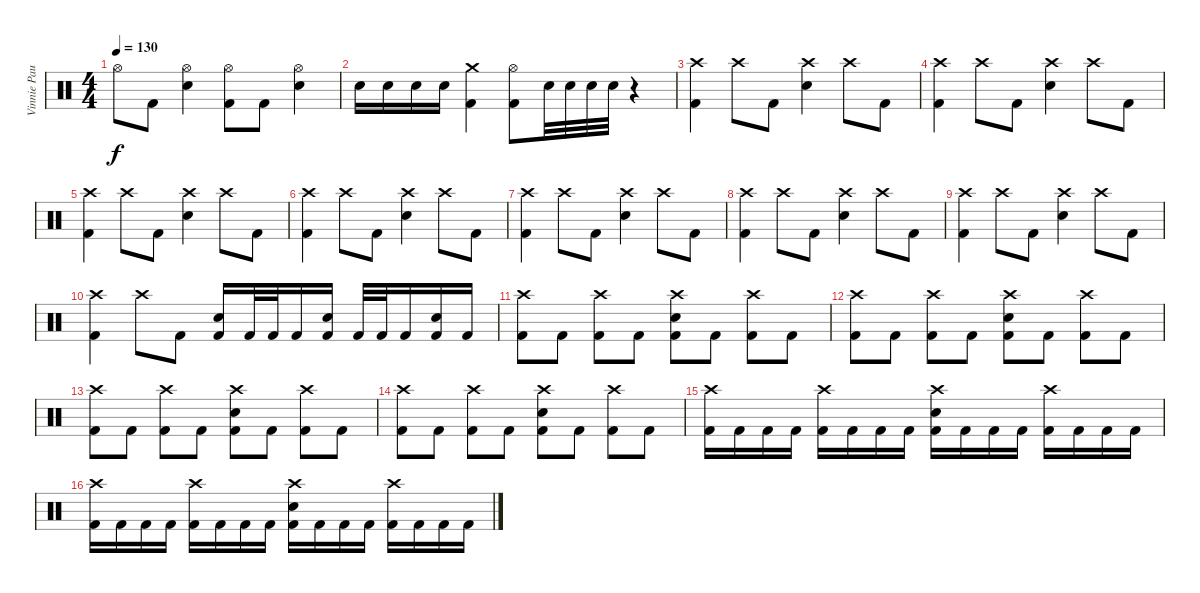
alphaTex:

\track ("Vinnie Paul" "Vinnie Pau") {instrument percussion}
\staff {score}
\articulation defaults
\ts (4 4)
\tempo 130
\clef neutral
\ks c "Hi-Hat (open)"{t}.8{dy f} "Kick (hit) 2".8
("Hi-Hat (open)" "Snare (hit) 2").4 ("Hi-Hat (open)" "Kick (hit) 2").8 "Kick (hit) 2".8 ("Hi-Hat (open)" "Snare (hit) 2").4 |
"Snare (hit) 2".16 "Snare (hit) 2".16 "Snare (hit) 2".16 "Snare (hit) 2".16 ("Crash medium (hit)" "Kick (hit) 2").4 ("Hi-Hat (open)" "Kick (hit) 2").8{bd 120} "Snare (hit) 2".32 "Snare (hit) 2".32 "Snare (hit) 2".32 "Snare (hit) 2".32 r.4 |
("Crash high (hit)" "Kick (hit) 2").4 "Crash high (hit)".8 "Kick (hit) 2".8 ("Crash high (hit)" "Snare (hit) 2").4 "Crash high (hit)".8 "Kick (hit) 2".8 |
("Crash high (hit)" "Kick (hit) 2").4 "Crash high (hit)".8 "Kick (hit) 2".8 ("Crash high (hit)" "Snare (hit) 2").4 "Crash high (hit)".8 "Kick (hit) 2".8 |
("Crash high (hit)" "Kick (hit) 2").4 "Crash high (hit)".8 "Kick (hit) 2".8 ("Crash high (hit)" "Snare (hit) 2").4 "Crash high (hit)".8 "Kick (hit) 2".8 |
("Crash high (hit)" "Kick (hit) 2").4 "Crash high (hit)".8 "Kick (hit) 2".8 ("Crash high (hit)" "Snare (hit) 2").4 "Crash high (hit)".8 "Kick (hit) 2".8 |
("Crash high (hit)" "Kick (hit) 2").4 "Crash high (hit)".8 "Kick (hit) 2".8 ("Crash high (hit)" "Snare (hit) 2").4 "Crash high (hit)".8 "Kick (hit) 2".8 |
("Crash high (hit)" "Kick (hit) 2").4 "Crash high (hit)".8 "Kick (hit) 2".8 ("Crash high (hit)" "Snare (hit) 2").4 "Crash high (hit)".8 "Kick (hit) 2".8 |
("Crash high (hit)" "Kick (hit) 2").4 "Crash high (hit)".8 "Kick (hit) 2".8 ("Crash high (hit)" "Snare (hit) 2").4 "Crash high (hit)".8 "Kick (hit) 2".8 |
("Crash high (hit)" "Kick (hit) 2").4 "Crash high (hit)".8 "Kick (hit) 2".8 ("Snare (hit) 2" "Kick (hit) 2").16 "Kick (hit) 2".32 "Kick (hit) 2".32 "Kick (hit) 2".16 ("Snare (hit) 2" "Kick (hit) 2").16 "Kick (hit) 2".32 "Kick (hit) 2".32 "Kick (hit) 2".16 ("Snare (hit) 2" "Kick (hit) 2").16 "Kick (hit) 2".16 |
("Crash high (hit)" "Kick (hit) 2").8 "Kick (hit) 2".8 ("Crash high (hit)" "Kick (hit) 2").8 "Kick (hit) 2".8 ("Crash high (hit)" "Snare (hit) 2" "Kick (hit) 2").8 "Kick (hit) 2".8 ("Crash high (hit)" "Kick (hit) 2").8 "Kick (hit) 2".8 |
("Crash high (hit)" "Kick (hit) 2").8 "Kick (hit) 2".8 ("Crash high (hit)" "Kick (hit) 2").8 "Kick (hit) 2".8 ("Crash high (hit)" "Snare (hit) 2" "Kick (hit) 2").8 "Kick (hit) 2".8 ("Crash high (hit)" "Kick (hit) 2").8 "Kick (hit) 2".8 |
("Crash high (hit)" "Kick (hit) 2").8 "Kick (hit) 2".8 ("Crash high (hit)" "Kick (hit) 2").8 "Kick (hit) 2".8 ("Crash high (hit)" "Snare (hit) 2" "Kick (hit) 2").8 "Kick (hit) 2".8 ("Crash high (hit)" "Kick (hit) 2").8 "Kick (hit) 2".8 |
("Crash high (hit)" "Kick (hit) 2").8 "Kick (hit) 2".8 ("Crash high (hit)" "Kick (hit) 2").8 "Kick (hit) 2".8 ("Crash high (hit)" "Snare (hit) 2" "Kick (hit) 2").8 "Kick (hit) 2".8 ("Crash high (hit)" "Kick (hit) 2").8 "Kick (hit) 2".8 |
("Crash high (hit)" "Kick (hit) 2").16 "Kick (hit) 2".16 "Kick (hit) 2".16 "Kick (hit) 2".16 ("Crash high (hit)" "Kick (hit) 2").16 "Kick (hit) 2".16 "Kick (hit) 2".16 "Kick (hit) 2".16 ("Crash high (hit)" "Snare (hit) 2" "Kick (hit) 2").16 "Kick (hit) 2".16 "Kick (hit) 2".16 "Kick (hit) 2".16 ("Crash high (hit)" "Kick (hit) 2").16 "Kick (hit) 2".16 "Kick (hit) 2".16 "Kick (hit) 2".16 |
("Crash high (hit)" "Kick (hit) 2").16 "Kick (hit) 2".16 "Kick (hit) 2".16 "Kick (hit) 2".16 ("Crash high (hit)" "Kick (hit) 2").16 "Kick (hit) 2".16 "Kick (hit) 2".16 "Kick (hit) 2".16 ("Crash high (hit)" "Snare (hit) 2" "Kick (hit) 2").16 "Kick (hit) 2".16 "Kick (hit) 2".16 "Kick (hit) 2".16 ("Crash high (hit)" "Kick (hit) 2").16 "Kick (hit) 2".16 "Kick (hit) 2".16 "Kick (hit) 2".16
